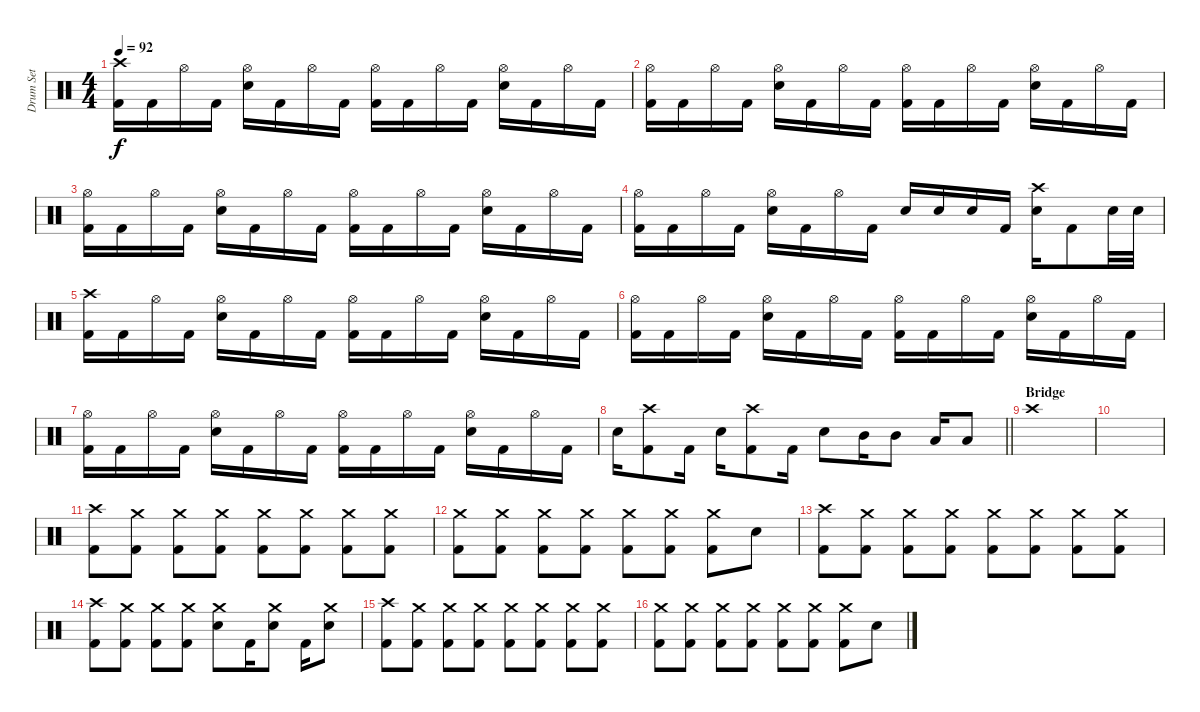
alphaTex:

\track ("Drum Set" "Drum Set") {instrument percussion}
\staff {score}
\articulation defaults
\ts (4 4)
\tempo 92
\clef neutral
\ks c
("Crash high (hit)" "Kick (hit) 2").16{dy f} "Kick (hit) 2".16 "Hi-Hat (open)".16 "Kick (hit) 2".16 ("Hi-Hat (open)" "Electric Snare (hit)").16 "Kick (hit) 2".16 "Hi-Hat (open)".16 "Kick (hit) 2".16 ("Hi-Hat (open)" "Kick (hit) 2").16 "Kick (hit) 2".16 "Hi-Hat (open)".16 "Kick (hit) 2".16 ("Hi-Hat (open)" "Electric Snare (hit)").16 "Kick (hit) 2".16 "Hi-Hat (open)".16 "Kick (hit) 2".16 |
("Hi-Hat (open)" "Kick (hit) 2").16 "Kick (hit) 2".16 "Hi-Hat (open)".16 "Kick (hit) 2".16 ("Hi-Hat (open)" "Electric Snare (hit)").16 "Kick (hit) 2".16 "Hi-Hat (open)".16 "Kick (hit) 2".16 ("Hi-Hat (open)" "Kick (hit) 2").16 "Kick (hit) 2".16 "Hi-Hat (open)".16 "Kick (hit) 2".16 ("Hi-Hat (open)" "Electric Snare (hit)").16 "Kick (hit) 2".16 "Hi-Hat (open)".16 "Kick (hit) 2".16 |
("Hi-Hat (open)" "Kick (hit) 2").16 "Kick (hit) 2".16 "Hi-Hat (open)".16 "Kick (hit) 2".16 ("Hi-Hat (open)" "Electric Snare (hit)").16 "Kick (hit) 2".16 "Hi-Hat (open)".16 "Kick (hit) 2".16 ("Hi-Hat (open)" "Kick (hit) 2").16 "Kick (hit) 2".16 "Hi-Hat (open)".16 "Kick (hit) 2".16 ("Hi-Hat (open)" "Electric Snare (hit)").16 "Kick (hit) 2".16 "Hi-Hat (open)".16 "Kick (hit) 2".16 |
("Hi-Hat (open)" "Kick (hit) 2").16 "Kick (hit) 2".16 "Hi-Hat (open)".16 "Kick (hit) 2".16 ("Hi-Hat (open)" "Electric Snare (hit)").16 "Kick (hit) 2".16 "Hi-Hat (open)".16 "Kick (hit) 2".16 "Electric Snare (hit)".16 "Electric Snare (hit)".16 "Electric Snare (hit)".16 "Kick (hit) 2".16 ("Electric Snare (hit)" "Crash high (hit)").16 "Kick (hit) 2".8 "Electric Snare (hit)".32 "Electric Snare (hit)".32 |
("Crash high (hit)" "Kick (hit) 2").16 "Kick (hit) 2".16 "Hi-Hat (open)".16 "Kick (hit) 2".16 ("Hi-Hat (open)" "Electric Snare (hit)").16 "Kick (hit) 2".16 "Hi-Hat (open)".16 "Kick (hit) 2".16 ("Hi-Hat (open)" "Kick (hit) 2").16 "Kick (hit) 2".16 "Hi-Hat (open)".16 "Kick (hit) 2".16 ("Hi-Hat (open)" "Electric Snare (hit)").16 "Kick (hit) 2".16 "Hi-Hat (open)".16 "Kick (hit) 2".16 |
("Hi-Hat (open)" "Kick (hit) 2").16 "Kick (hit) 2".16 "Hi-Hat (open)".16 "Kick (hit) 2".16 ("Hi-Hat (open)" "Electric Snare (hit)").16 "Kick (hit) 2".16 "Hi-Hat (open)".16 "Kick (hit) 2".16 ("Hi-Hat (open)" "Kick (hit) 2").16 "Kick (hit) 2".16 "Hi-Hat (open)".16 "Kick (hit) 2".16 ("Hi-Hat (open)" "Electric Snare (hit)").16 "Kick (hit) 2".16 "Hi-Hat (open)".16 "Kick (hit) 2".16 |
("Hi-Hat (open)" "Kick (hit) 2").16 "Kick (hit) 2".16 "Hi-Hat (open)".16 "Kick (hit) 2".16 ("Hi-Hat (open)" "Electric Snare (hit)").16 "Kick (hit) 2".16 "Hi-Hat (open)".16 "Kick (hit) 2".16 ("Hi-Hat (open)" "Kick (hit) 2").16 "Kick (hit) 2".16 "Hi-Hat (open)".16 "Kick (hit) 2".16 ("Hi-Hat (open)" "Electric Snare (hit)").16 "Kick (hit) 2".16 "Hi-Hat (open)".16 "Kick (hit) 2".16 |
\barLineRight lightlight "Electric Snare (hit)".16
("Crash high (hit)" "Kick (hit) 2").8 "Kick (hit) 2".16 "Electric Snare (hit)".16 ("Crash high (hit)" "Kick (hit) 2").8 "Kick (hit) 2".16 "Electric Snare (hit)".8 "Mid Tom (hit)".16 "Mid Tom (hit)".8 "Low Floor Tom (hit)".16 "Low Floor Tom (hit)".8 |
\section ("" "Bridge")
"Crash high (hit)".1 |
|
("Crash high (hit)" "Kick (hit) 2").8 ("Crash medium (hit)" "Kick (hit) 2").8 ("Crash medium (hit)" "Kick (hit) 2").8 ("Crash medium (hit)" "Kick (hit) 2").8 ("Crash medium (hit)" "Kick (hit) 2").8 ("Crash medium (hit)" "Kick (hit) 2").8 ("Crash medium (hit)" "Kick (hit) 2").8 ("Crash medium (hit)" "Kick (hit) 2").8 |
("Crash medium (hit)" "Kick (hit) 2").8 ("Crash medium (hit)" "Kick (hit) 2").8 ("Crash medium (hit)" "Kick (hit) 2").8 ("Crash medium (hit)" "Kick (hit) 2").8 ("Crash medium (hit)" "Kick (hit) 2").8 ("Crash medium (hit)" "Kick (hit) 2").8 ("Crash medium (hit)" "Kick (hit) 2").8 "Electric Snare (hit)".8 |
("Crash high (hit)" "Kick (hit) 2").8 ("Crash medium (hit)" "Kick (hit) 2").8 ("Crash medium (hit)" "Kick (hit) 2").8 ("Crash medium (hit)" "Kick (hit) 2").8 ("Crash medium (hit)" "Kick (hit) 2").8 ("Crash medium (hit)" "Kick (hit) 2").8 ("Crash medium (hit)" "Kick (hit) 2").8 ("Crash medium (hit)" "Kick (hit) 2").8 |
("Crash high (hit)" "Kick (hit) 2").8 ("Crash medium (hit)" "Kick (hit) 2").8 ("Crash medium (hit)" "Kick (hit) 2").8 ("Crash medium (hit)" "Kick (hit) 2").8 ("Crash medium (hit)" "Electric Snare (hit)").8 "Kick (hit) 2".16 ("Crash medium (hit)" "Electric Snare (hit)").8 "Kick (hit) 2".16 ("Crash medium (hit)" "Electric Snare (hit)").8 |
("Crash high (hit)" "Kick (hit) 2").8 ("Crash medium (hit)" "Kick (hit) 2").8 ("Crash medium (hit)" "Kick (hit) 2").8 ("Crash medium (hit)" "Kick (hit) 2").8 ("Crash medium (hit)" "Kick (hit) 2").8 ("Crash medium (hit)" "Kick (hit) 2").8 ("Crash medium (hit)" "Kick (hit) 2").8 ("Crash medium (hit)" "Kick (hit) 2").8 |
("Crash medium (hit)" "Kick (hit) 2").8 ("Crash medium (hit)" "Kick (hit) 2").8 ("Crash medium (hit)" "Kick (hit) 2").8 ("Crash medium (hit)" "Kick (hit) 2").8 ("Crash medium (hit)" "Kick (hit) 2").8 ("Crash medium (hit)" "Kick (hit) 2").8 ("Crash medium (hit)" "Kick (hit) 2").8 "Electric Snare (hit)".8
